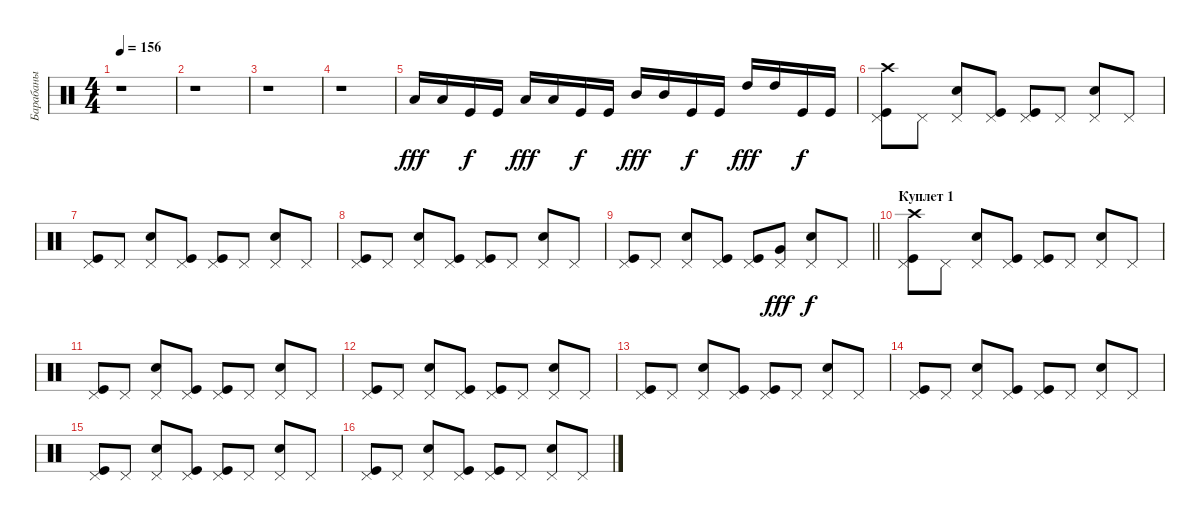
\track ("Барабаны" "Барабаны") {instrument percussion}
\staff {score}
\articulation defaults
\ts (4 4)
\tempo 156
\clef neutral
\ks c
r.1{dy fff} |
r.1 |
r.1 |
r.1 |
"Low Floor Tom (hit)".16 "Low Floor Tom (hit)".16 "Kick (hit)".16{dy f} "Kick (hit)".16 "Low Tom (hit)".16{dy fff} "Low Tom (hit)".16 "Kick (hit)".16{dy f} "Kick (hit)".16 "Mid Tom (hit)".16{dy fff} "Mid Tom (hit)".16 "Kick (hit)".16{dy f} "Kick (hit)".16 "High Tom (hit)".16{dy fff} "High Tom (hit)".16 "Kick (hit)".16{dy f} "Kick (hit)".16 |
("Kick (hit)" "Pedal Hi-Hat (hit)" "Crash high (hit)").8 "Pedal Hi-Hat (hit)".8 ("Snare (hit) 2" "Pedal Hi-Hat (hit)").8 ("Kick (hit)" "Pedal Hi-Hat (hit)").8 ("Kick (hit)" "Pedal Hi-Hat (hit)").8 "Pedal Hi-Hat (hit)".8 ("Snare (hit) 2" "Pedal Hi-Hat (hit)").8 "Pedal Hi-Hat (hit)".8 |
("Kick (hit)" "Pedal Hi-Hat (hit)").8 "Pedal Hi-Hat (hit)".8 ("Snare (hit) 2" "Pedal Hi-Hat (hit)").8 ("Kick (hit)" "Pedal Hi-Hat (hit)").8 ("Kick (hit)" "Pedal Hi-Hat (hit)").8 "Pedal Hi-Hat (hit)".8 ("Snare (hit) 2" "Pedal Hi-Hat (hit)").8 "Pedal Hi-Hat (hit)".8 |
("Kick (hit)" "Pedal Hi-Hat (hit)").8 "Pedal Hi-Hat (hit)".8 ("Snare (hit) 2" "Pedal Hi-Hat (hit)").8 ("Kick (hit)" "Pedal Hi-Hat (hit)").8 ("Kick (hit)" "Pedal Hi-Hat (hit)").8 "Pedal Hi-Hat (hit)".8 ("Snare (hit) 2" "Pedal Hi-Hat (hit)").8 "Pedal Hi-Hat (hit)".8 |
\barLineRight lightlight
("Kick (hit)" "Pedal Hi-Hat (hit)").8 "Pedal Hi-Hat (hit)".8 ("Snare (hit) 2" "Pedal Hi-Hat (hit)").8 ("Kick (hit)" "Pedal Hi-Hat (hit)").8 ("Kick (hit)" "Pedal Hi-Hat (hit)").8 ("Pedal Hi-Hat (hit)" "Very Low Tom (hit)").8{dy fff} ("Snare (hit) 2" "Pedal Hi-Hat (hit)").8{dy f} "Pedal Hi-Hat (hit)".8 |
\section ("" "Куплет 1")
("Kick (hit)" "Pedal Hi-Hat (hit)" "Crash high (hit)").8 "Pedal Hi-Hat (hit)".8 ("Snare (hit) 2" "Pedal Hi-Hat (hit)").8 ("Kick (hit)" "Pedal Hi-Hat (hit)").8 ("Kick (hit)" "Pedal Hi-Hat (hit)").8 "Pedal Hi-Hat (hit)".8 ("Snare (hit) 2" "Pedal Hi-Hat (hit)").8 "Pedal Hi-Hat (hit)".8 |
("Kick (hit)" "Pedal Hi-Hat (hit)").8 "Pedal Hi-Hat (hit)".8 ("Snare (hit) 2" "Pedal Hi-Hat (hit)").8 ("Kick (hit)" "Pedal Hi-Hat (hit)").8 ("Kick (hit)" "Pedal Hi-Hat (hit)").8 "Pedal Hi-Hat (hit)".8 ("Snare (hit) 2" "Pedal Hi-Hat (hit)").8 "Pedal Hi-Hat (hit)".8 |
("Kick (hit)" "Pedal Hi-Hat (hit)").8 "Pedal Hi-Hat (hit)".8 ("Snare (hit) 2" "Pedal Hi-Hat (hit)").8 ("Kick (hit)" "Pedal Hi-Hat (hit)").8 ("Kick (hit)" "Pedal Hi-Hat (hit)").8 "Pedal Hi-Hat (hit)".8 ("Snare (hit) 2" "Pedal Hi-Hat (hit)").8 "Pedal Hi-Hat (hit)".8 |
("Kick (hit)" "Pedal Hi-Hat (hit)").8 "Pedal Hi-Hat (hit)".8 ("Snare (hit) 2" "Pedal Hi-Hat (hit)").8 ("Kick (hit)" "Pedal Hi-Hat (hit)").8 ("Kick (hit)" "Pedal Hi-Hat (hit)").8 "Pedal Hi-Hat (hit)".8 ("Snare (hit) 2" "Pedal Hi-Hat (hit)").8 "Pedal Hi-Hat (hit)".8 |
("Kick (hit)" "Pedal Hi-Hat (hit)").8 "Pedal Hi-Hat (hit)".8 ("Snare (hit) 2" "Pedal Hi-Hat (hit)").8 ("Kick (hit)" "Pedal Hi-Hat (hit)").8 ("Kick (hit)" "Pedal Hi-Hat (hit)").8 "Pedal Hi-Hat (hit)".8 ("Snare (hit) 2" "Pedal Hi-Hat (hit)").8 "Pedal Hi-Hat (hit)".8 |
("Kick (hit)" "Pedal Hi-Hat (hit)").8 "Pedal Hi-Hat (hit)".8 ("Snare (hit) 2" "Pedal Hi-Hat (hit)").8 ("Kick (hit)" "Pedal Hi-Hat (hit)").8 ("Kick (hit)" "Pedal Hi-Hat (hit)").8 "Pedal Hi-Hat (hit)".8 ("Snare (hit) 2" "Pedal Hi-Hat (hit)").8 "Pedal Hi-Hat (hit)".8 |
("Kick (hit)" "Pedal Hi-Hat (hit)").8 "Pedal Hi-Hat (hit)".8 ("Snare (hit) 2" "Pedal Hi-Hat (hit)").8 ("Kick (hit)" "Pedal Hi-Hat (hit)").8 ("Kick (hit)" "Pedal Hi-Hat (hit)").8 "Pedal Hi-Hat (hit)".8 ("Snare (hit) 2" "Pedal Hi-Hat (hit)").8 "Pedal Hi-Hat (hit)".8
